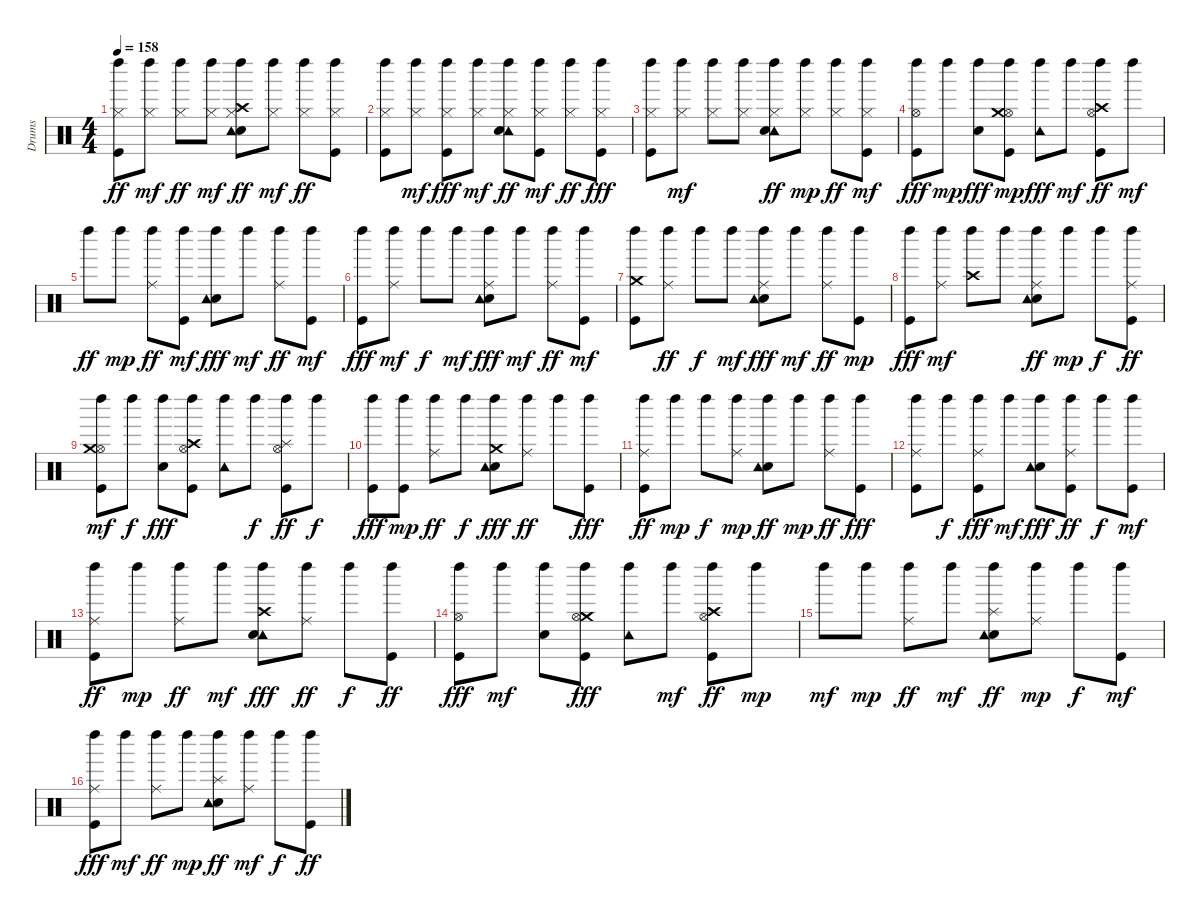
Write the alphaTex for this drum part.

\track ("Drums" "Drums") {instrument percussion}
\staff {score}
\articulation defaults
\ts (4 4)
\tempo 158
\clef neutral
\ks c
("Kick (hit)" "Hi-Hat (closed)" "Left Maraca (hit)").8{dy ff} ("Hi-Hat (closed)" "Left Maraca (hit)").8{dy mf} ("Hi-Hat (closed)" "Left Maraca (hit)").8{dy ff} ("Hi-Hat (closed)" "Left Maraca (hit)").8{dy mf} ("Electric Snare (hit)" "Hi-Hat (closed)" "Crash high (hit)" "Tambourine (hit)" "Left Maraca (hit)").8{dy ff} ("Hi-Hat (closed)" "Left Maraca (hit)").8{dy mf} ("Hi-Hat (closed)" "Left Maraca (hit)").8{dy ff} ("Kick (hit)" "Hi-Hat (closed)" "Left Maraca (hit)").8 |
("Kick (hit)" "Hi-Hat (closed)" "Left Maraca (hit)").8 ("Hi-Hat (closed)" "Left Maraca (hit)").8{dy mf} ("Hi-Hat (closed)" "Kick (hit)" "Left Maraca (hit)").8{dy fff} ("Hi-Hat (closed)" "Left Maraca (hit)").8{dy mf} ("Hi-Hat (closed)" "Tambourine (hit)" "Electric Snare (hit)" "Left Maraca (hit)").8{dy ff} ("Hi-Hat (closed)" "Kick (hit)" "Left Maraca (hit)").8{dy mf} ("Hi-Hat (closed)" "Left Maraca (hit)").8{dy ff} ("Hi-Hat (closed)" "Left Maraca (hit)" "Kick (hit)").8{dy fff} |
("Hi-Hat (closed)" "Left Maraca (hit)" "Kick (hit)").8 ("Hi-Hat (closed)" "Left Maraca (hit)").8{dy mf} ("Hi-Hat (closed)" "Left Maraca (hit)").8 ("Hi-Hat (closed)" "Left Maraca (hit)").8 ("Hi-Hat (closed)" "Tambourine (hit)" "Electric Snare (hit)" "Left Maraca (hit)").8{dy ff} ("Hi-Hat (closed)" "Left Maraca (hit)").8{dy mp} ("Hi-Hat (closed)" "Left Maraca (hit)").8{dy ff} ("Hi-Hat (closed)" "Kick (hit)" "Left Maraca (hit)").8{dy mf} |
("Hi-Hat (open)" "Kick (hit)" "Left Maraca (hit)").8{dy fff} "Left Maraca (hit)".8{dy mp} ("Left Maraca (hit)" "Electric Snare (hit)").8{dy fff} ("Left Maraca (hit)" "Hi-Hat (open)" "Kick (hit)" "Crash medium (hit)").8{dy mp} ("Left Maraca (hit)" "Tambourine (hit)").8{dy fff} "Left Maraca (hit)".8{dy mf} ("Kick (hit)" "Crash high (hit)" "Hi-Hat (open)" "Left Maraca (hit)").8{dy ff} "Left Maraca (hit)".8{dy mf} |
"Left Maraca (hit)".8{dy ff} "Left Maraca (hit)".8{dy mp} ("Ride (middle)" "Left Maraca (hit)").8{dy ff} ("Kick (hit)" "Left Maraca (hit)").8{dy mf} ("Electric Snare (hit)" "Tambourine (hit)" "Left Maraca (hit)").8{dy fff} "Left Maraca (hit)".8{dy mf} ("Ride (middle)" "Left Maraca (hit)").8{dy ff} ("Kick (hit)" "Left Maraca (hit)").8{dy mf} |
("Kick (hit)" "Left Maraca (hit)").8{dy fff} ("Ride (middle)" "Left Maraca (hit)").8{dy mf} "Left Maraca (hit)".8{dy f} "Left Maraca (hit)".8{dy mf} ("Electric Snare (hit)" "Ride (middle)" "Tambourine (hit)" "Left Maraca (hit)").8{dy fff} "Left Maraca (hit)".8{dy mf} ("Ride (middle)" "Left Maraca (hit)").8{dy ff} ("Kick (hit)" "Left Maraca (hit)").8{dy mf} |
("Kick (hit)" "Left Maraca (hit)" "Crash medium (hit)").8 ("Left Maraca (hit)" "Ride (middle)").8{dy ff} "Left Maraca (hit)".8{dy f} "Left Maraca (hit)".8{dy mf} ("Ride (middle)" "Electric Snare (hit)" "Tambourine (hit)" "Left Maraca (hit)").8{dy fff} "Left Maraca (hit)".8{dy mf} ("Ride (middle)" "Left Maraca (hit)").8{dy ff} ("Kick (hit)" "Left Maraca (hit)").8{dy mp} |
("Left Maraca (hit)" "Kick (hit)").8{dy fff} ("Ride (middle)" "Left Maraca (hit)").8{dy mf} ("Left Maraca (hit)" "Crash high (hit)").8 "Left Maraca (hit)".8 ("Electric Snare (hit)" "Ride (middle)" "Tambourine (hit)" "Left Maraca (hit)").8{dy ff} "Left Maraca (hit)".8{dy mp} "Left Maraca (hit)".8{dy f} ("Kick (hit)" "Left Maraca (hit)" "Ride (middle)").8{dy ff} |
("Kick (hit)" "Left Maraca (hit)" "Hi-Hat (open)" "Crash medium (hit)").8{dy mf} "Left Maraca (hit)".8{dy f} ("Left Maraca (hit)" "Electric Snare (hit)").8{dy fff} ("Hi-Hat (open)" "Left Maraca (hit)" "Crash high (hit)" "Kick (hit)").8 ("Left Maraca (hit)" "Tambourine (hit)").8 "Left Maraca (hit)".8{dy f} ("Kick (hit)" "Splash (hit)" "Left Maraca (hit)" "Hi-Hat (open)").8{dy ff} "Left Maraca (hit)".8{dy f} |
("Kick (hit)" "Left Maraca (hit)").8{dy fff} ("Kick (hit)" "Left Maraca (hit)").8{dy mp} ("Ride (middle)" "Left Maraca (hit)").8{dy ff} "Left Maraca (hit)".8{dy f} ("Electric Snare (hit)" "Left Maraca (hit)" "Crash medium (hit)" "Tambourine (hit)").8{dy fff} ("Left Maraca (hit)" "Ride (middle)").8{dy ff} "Left Maraca (hit)".8 ("Kick (hit)" "Left Maraca (hit)").8{dy fff} |
("Kick (hit)" "Ride (middle)" "Left Maraca (hit)").8{dy ff} "Left Maraca (hit)".8{dy mp} "Left Maraca (hit)".8{dy f} ("Ride (middle)" "Left Maraca (hit)").8{dy mp} ("Electric Snare (hit)" "Tambourine (hit)" "Left Maraca (hit)").8{dy ff} "Left Maraca (hit)".8{dy mp} ("Ride (middle)" "Left Maraca (hit)").8{dy ff} ("Left Maraca (hit)" "Kick (hit)").8{dy fff} |
("Ride (middle)" "Left Maraca (hit)" "Kick (hit)").8 "Left Maraca (hit)".8{dy f} ("Ride (middle)" "Left Maraca (hit)" "Kick (hit)").8{dy fff} "Left Maraca (hit)".8{dy mf} ("Electric Snare (hit)" "Left Maraca (hit)" "Tambourine (hit)").8{dy fff} ("Left Maraca (hit)" "Kick (hit)" "Ride (middle)").8{dy ff} "Left Maraca (hit)".8{dy f} ("Kick (hit)" "Left Maraca (hit)").8{dy mf} |
("Kick (hit)" "Left Maraca (hit)" "Ride (middle)").8{dy ff} "Left Maraca (hit)".8{dy mp} ("Left Maraca (hit)" "Ride (middle)").8{dy ff} "Left Maraca (hit)".8{dy mf} ("Crash high (hit)" "Tambourine (hit)" "Electric Snare (hit)" "Left Maraca (hit)").8{dy fff} ("Left Maraca (hit)" "Ride (middle)").8{dy ff} "Left Maraca (hit)".8{dy f} ("Left Maraca (hit)" "Kick (hit)").8{dy ff} |
("Hi-Hat (open)" "Left Maraca (hit)" "Kick (hit)").8{dy fff} "Left Maraca (hit)".8{dy mf} ("Electric Snare (hit)" "Left Maraca (hit)").8 ("Crash medium (hit)" "Left Maraca (hit)" "Kick (hit)" "Hi-Hat (open)").8{dy fff} ("Left Maraca (hit)" "Tambourine (hit)").8 "Left Maraca (hit)".8{dy mf} ("Kick (hit)" "Crash high (hit)" "Hi-Hat (open)" "Left Maraca (hit)").8{dy ff} "Left Maraca (hit)".8{dy mp} |
"Left Maraca (hit)".8{dy mf} "Left Maraca (hit)".8{dy mp} ("Ride (middle)" "Left Maraca (hit)").8{dy ff} "Left Maraca (hit)".8{dy mf} ("Electric Snare (hit)" "Tambourine (hit)" "Splash (hit)" "Left Maraca (hit)").8{dy ff} ("Ride (middle)" "Left Maraca (hit)").8{dy mp} "Left Maraca (hit)".8{dy f} ("Kick (hit)" "Left Maraca (hit)").8{dy mf} |
("Ride (middle)" "Left Maraca (hit)" "Kick (hit)").8{dy fff} "Left Maraca (hit)".8{dy mf} ("Ride (middle)" "Left Maraca (hit)").8{dy ff} "Left Maraca (hit)".8{dy mp} ("Electric Snare (hit)" "Splash (hit)" "Tambourine (hit)" "Left Maraca (hit)").8{dy ff} ("Ride (middle)" "Left Maraca (hit)").8{dy mf} "Left Maraca (hit)".8{dy f} ("Left Maraca (hit)" "Kick (hit)").8{dy ff}
